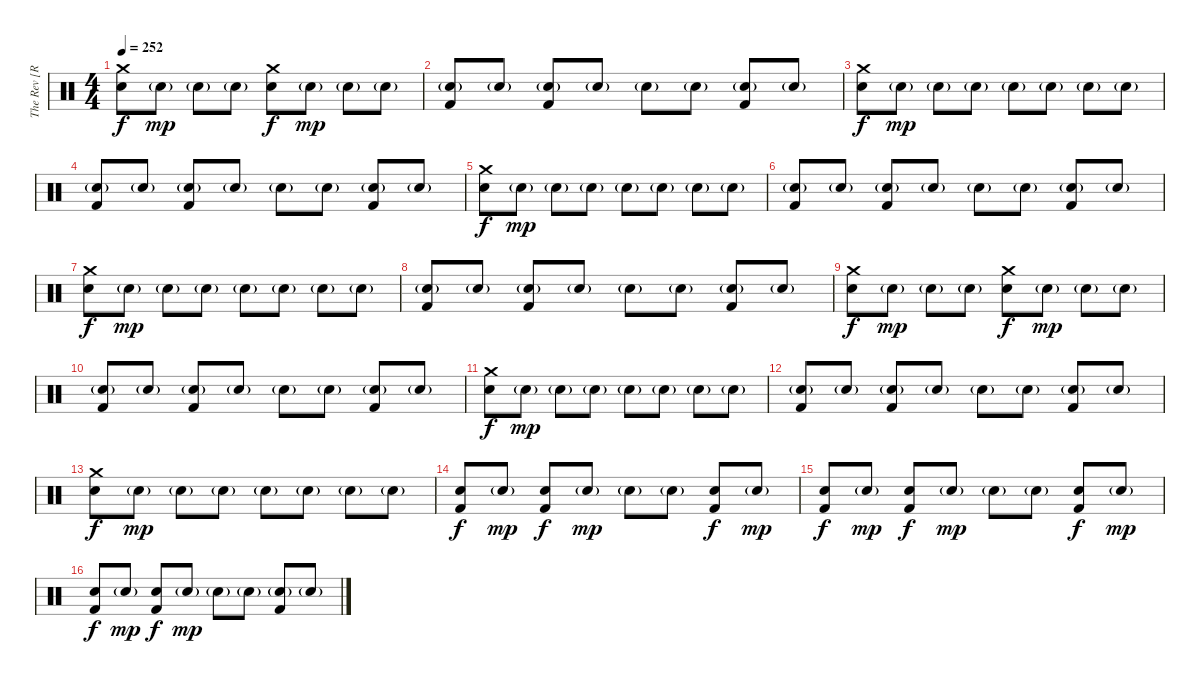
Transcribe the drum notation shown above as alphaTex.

\track ("The Rev [R.I.P]" "The Rev [R") {instrument percussion}
\staff {score}
\articulation defaults
\ts (4 4)
\tempo 252
\clef neutral
\ks c
("Crash medium (hit)" "Electric Snare (hit)").8{dy f} "Electric Snare (hit)"{g}.8{dy mp} "Electric Snare (hit)"{g}.8 "Electric Snare (hit)"{g}.8 ("Crash medium (hit)" "Electric Snare (hit)").8{dy f} "Electric Snare (hit)"{g}.8{dy mp} "Electric Snare (hit)"{g}.8 "Electric Snare (hit)"{g}.8 |
("Electric Snare (hit)"{g} "Kick (hit) 2").8 "Electric Snare (hit)"{g}.8 ("Electric Snare (hit)"{g} "Kick (hit) 2").8 "Electric Snare (hit)"{g}.8 "Electric Snare (hit)"{g}.8 "Electric Snare (hit)"{g}.8 ("Electric Snare (hit)"{g} "Kick (hit) 2").8 "Electric Snare (hit)"{g}.8 |
("Crash medium (hit)" "Electric Snare (hit)").8{dy f} "Electric Snare (hit)"{g}.8{dy mp} "Electric Snare (hit)"{g}.8 "Electric Snare (hit)"{g}.8 "Electric Snare (hit)"{g}.8 "Electric Snare (hit)"{g}.8 "Electric Snare (hit)"{g}.8 "Electric Snare (hit)"{g}.8 |
("Electric Snare (hit)"{g} "Kick (hit) 2").8 "Electric Snare (hit)"{g}.8 ("Electric Snare (hit)"{g} "Kick (hit) 2").8 "Electric Snare (hit)"{g}.8 "Electric Snare (hit)"{g}.8 "Electric Snare (hit)"{g}.8 ("Electric Snare (hit)"{g} "Kick (hit) 2").8 "Electric Snare (hit)"{g}.8 |
("Crash medium (hit)" "Electric Snare (hit)").8{dy f} "Electric Snare (hit)"{g}.8{dy mp} "Electric Snare (hit)"{g}.8 "Electric Snare (hit)"{g}.8 "Electric Snare (hit)"{g}.8 "Electric Snare (hit)"{g}.8 "Electric Snare (hit)"{g}.8 "Electric Snare (hit)"{g}.8 |
("Electric Snare (hit)"{g} "Kick (hit) 2").8 "Electric Snare (hit)"{g}.8 ("Electric Snare (hit)"{g} "Kick (hit) 2").8 "Electric Snare (hit)"{g}.8 "Electric Snare (hit)"{g}.8 "Electric Snare (hit)"{g}.8 ("Electric Snare (hit)"{g} "Kick (hit) 2").8 "Electric Snare (hit)"{g}.8 |
("Crash medium (hit)" "Electric Snare (hit)").8{dy f} "Electric Snare (hit)"{g}.8{dy mp} "Electric Snare (hit)"{g}.8 "Electric Snare (hit)"{g}.8 "Electric Snare (hit)"{g}.8 "Electric Snare (hit)"{g}.8 "Electric Snare (hit)"{g}.8 "Electric Snare (hit)"{g}.8 |
("Electric Snare (hit)"{g} "Kick (hit) 2").8 "Electric Snare (hit)"{g}.8 ("Electric Snare (hit)"{g} "Kick (hit) 2").8 "Electric Snare (hit)"{g}.8 "Electric Snare (hit)"{g}.8 "Electric Snare (hit)"{g}.8 ("Electric Snare (hit)"{g} "Kick (hit) 2").8 "Electric Snare (hit)"{g}.8 |
("Crash medium (hit)" "Electric Snare (hit)").8{dy f} "Electric Snare (hit)"{g}.8{dy mp} "Electric Snare (hit)"{g}.8 "Electric Snare (hit)"{g}.8 ("Crash medium (hit)" "Electric Snare (hit)").8{dy f} "Electric Snare (hit)"{g}.8{dy mp} "Electric Snare (hit)"{g}.8 "Electric Snare (hit)"{g}.8 |
("Electric Snare (hit)"{g} "Kick (hit) 2").8 "Electric Snare (hit)"{g}.8 ("Electric Snare (hit)"{g} "Kick (hit) 2").8 "Electric Snare (hit)"{g}.8 "Electric Snare (hit)"{g}.8 "Electric Snare (hit)"{g}.8 ("Electric Snare (hit)"{g} "Kick (hit) 2").8 "Electric Snare (hit)"{g}.8 |
("Crash medium (hit)" "Electric Snare (hit)").8{dy f} "Electric Snare (hit)"{g}.8{dy mp} "Electric Snare (hit)"{g}.8 "Electric Snare (hit)"{g}.8 "Electric Snare (hit)"{g}.8 "Electric Snare (hit)"{g}.8 "Electric Snare (hit)"{g}.8 "Electric Snare (hit)"{g}.8 |
("Electric Snare (hit)"{g} "Kick (hit) 2").8 "Electric Snare (hit)"{g}.8 ("Electric Snare (hit)"{g} "Kick (hit) 2").8 "Electric Snare (hit)"{g}.8 "Electric Snare (hit)"{g}.8 "Electric Snare (hit)"{g}.8 ("Electric Snare (hit)"{g} "Kick (hit) 2").8 "Electric Snare (hit)"{g}.8 |
("Crash medium (hit)" "Electric Snare (hit)").8{dy f} "Electric Snare (hit)"{g}.8{dy mp} "Electric Snare (hit)"{g}.8 "Electric Snare (hit)"{g}.8 "Electric Snare (hit)"{g}.8 "Electric Snare (hit)"{g}.8 "Electric Snare (hit)"{g}.8 "Electric Snare (hit)"{g}.8 |
("Electric Snare (hit)" "Kick (hit) 2").8{dy f} "Electric Snare (hit)"{g}.8{dy mp} ("Electric Snare (hit)" "Kick (hit) 2").8{dy f} "Electric Snare (hit)"{g}.8{dy mp} "Electric Snare (hit)"{g}.8 "Electric Snare (hit)"{g}.8 ("Electric Snare (hit)" "Kick (hit) 2").8{dy f} "Electric Snare (hit)"{g}.8{dy mp} |
("Electric Snare (hit)" "Kick (hit) 2").8{dy f} "Electric Snare (hit)"{g}.8{dy mp} ("Electric Snare (hit)" "Kick (hit) 2").8{dy f} "Electric Snare (hit)"{g}.8{dy mp} "Electric Snare (hit)"{g}.8 "Electric Snare (hit)"{g}.8 ("Electric Snare (hit)" "Kick (hit) 2").8{dy f} "Electric Snare (hit)"{g}.8{dy mp} |
("Electric Snare (hit)" "Kick (hit) 2").8{dy f} "Electric Snare (hit)"{g}.8{dy mp} ("Electric Snare (hit)" "Kick (hit) 2").8{dy f} "Electric Snare (hit)"{g}.8{dy mp} "Electric Snare (hit)"{g}.8 "Electric Snare (hit)"{g}.8 ("Electric Snare (hit)"{g} "Kick (hit) 2").8 "Electric Snare (hit)"{g}.8
